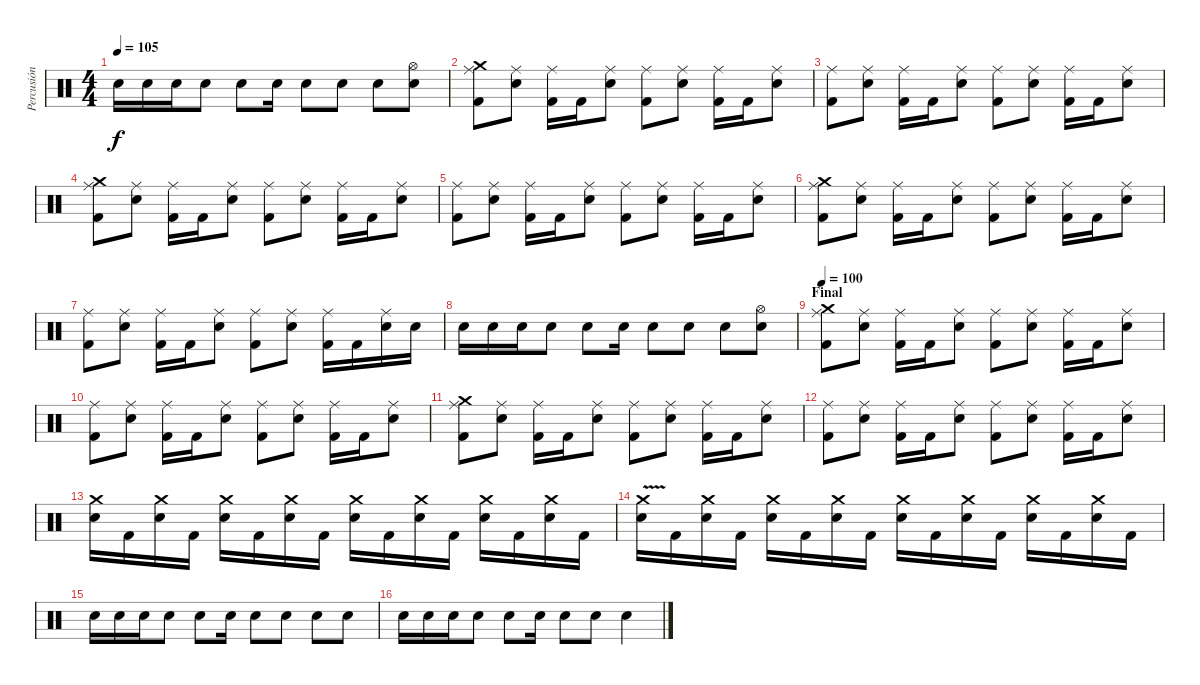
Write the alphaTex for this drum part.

\track ("Percusión" "Percusión") {instrument percussion}
\staff {score}
\articulation defaults
\ts (4 4)
\tempo 105
\clef neutral
\ks c "Snare (hit) 2".16{dy f} "Snare (hit) 2".16 "Snare (hit) 2".16 "Snare (hit) 2".8 "Snare (hit) 2".8 "Snare (hit) 2".16 "Snare (hit) 2".8 "Snare (hit) 2".8 "Snare (hit) 2".8
("Snare (hit) 2" "Hi-Hat (open)").8 |
("Kick (hit) 2" "Ride (middle)" "Crash medium (hit)").8 ("Snare (hit) 2" "Ride (middle)").8 ("Kick (hit) 2" "Ride (middle)").16 "Kick (hit) 2".16 ("Snare (hit) 2" "Ride (middle)").8 ("Kick (hit) 2" "Ride (middle)").8 ("Snare (hit) 2" "Ride (middle)").8 ("Kick (hit) 2" "Ride (middle)").16 "Kick (hit) 2".16 ("Snare (hit) 2" "Ride (middle)").8 |
("Kick (hit) 2" "Ride (middle)").8 ("Snare (hit) 2" "Ride (middle)").8 ("Kick (hit) 2" "Ride (middle)").16 "Kick (hit) 2".16 ("Snare (hit) 2" "Ride (middle)").8 ("Kick (hit) 2" "Ride (middle)").8 ("Snare (hit) 2" "Ride (middle)").8 ("Kick (hit) 2" "Ride (middle)").16 "Kick (hit) 2".16 ("Snare (hit) 2" "Ride (middle)").8 |
("Kick (hit) 2" "Ride (middle)" "Crash medium (hit)").8 ("Snare (hit) 2" "Ride (middle)").8 ("Kick (hit) 2" "Ride (middle)").16 "Kick (hit) 2".16 ("Snare (hit) 2" "Ride (middle)").8 ("Kick (hit) 2" "Ride (middle)").8 ("Snare (hit) 2" "Ride (middle)").8 ("Kick (hit) 2" "Ride (middle)").16 "Kick (hit) 2".16 ("Snare (hit) 2" "Ride (middle)").8 |
("Kick (hit) 2" "Ride (middle)").8 ("Snare (hit) 2" "Ride (middle)").8 ("Kick (hit) 2" "Ride (middle)").16 "Kick (hit) 2".16 ("Snare (hit) 2" "Ride (middle)").8 ("Kick (hit) 2" "Ride (middle)").8 ("Snare (hit) 2" "Ride (middle)").8 ("Kick (hit) 2" "Ride (middle)").16 "Kick (hit) 2".16 ("Snare (hit) 2" "Ride (middle)").8 |
("Kick (hit) 2" "Ride (middle)" "Crash medium (hit)").8 ("Snare (hit) 2" "Ride (middle)").8 ("Kick (hit) 2" "Ride (middle)").16 "Kick (hit) 2".16 ("Snare (hit) 2" "Ride (middle)").8 ("Kick (hit) 2" "Ride (middle)").8 ("Snare (hit) 2" "Ride (middle)").8 ("Kick (hit) 2" "Ride (middle)").16 "Kick (hit) 2".16 ("Snare (hit) 2" "Ride (middle)").8 |
("Kick (hit) 2" "Ride (middle)").8 ("Snare (hit) 2" "Ride (middle)").8 ("Kick (hit) 2" "Ride (middle)").16 "Kick (hit) 2".16 ("Snare (hit) 2" "Ride (middle)").8 ("Kick (hit) 2" "Ride (middle)").8 ("Snare (hit) 2" "Ride (middle)").8 ("Kick (hit) 2" "Ride (middle)").16 "Kick (hit) 2".16 ("Snare (hit) 2" "Ride (middle)").16 "Snare (hit) 2".16 |
"Snare (hit) 2".16 "Snare (hit) 2".16 "Snare (hit) 2".16 "Snare (hit) 2".8 "Snare (hit) 2".8 "Snare (hit) 2".16 "Snare (hit) 2".8 "Snare (hit) 2".8 "Snare (hit) 2".8 ("Snare (hit) 2" "Hi-Hat (open)").8 |
\section ("" "Final ")
\tempo 100
("Kick (hit) 2" "Ride (middle)" "Crash medium (hit)").8 ("Snare (hit) 2" "Ride (middle)").8 ("Kick (hit) 2" "Ride (middle)").16 "Kick (hit) 2".16 ("Snare (hit) 2" "Ride (middle)").8 ("Kick (hit) 2" "Ride (middle)").8 ("Snare (hit) 2" "Ride (middle)").8 ("Kick (hit) 2" "Ride (middle)").16 "Kick (hit) 2".16 ("Snare (hit) 2" "Ride (middle)").8 |
("Kick (hit) 2" "Ride (middle)").8 ("Snare (hit) 2" "Ride (middle)").8 ("Kick (hit) 2" "Ride (middle)").16 "Kick (hit) 2".16 ("Snare (hit) 2" "Ride (middle)").8 ("Kick (hit) 2" "Ride (middle)").8 ("Snare (hit) 2" "Ride (middle)").8 ("Kick (hit) 2" "Ride (middle)").16 "Kick (hit) 2".16 ("Snare (hit) 2" "Ride (middle)").8 |
("Kick (hit) 2" "Ride (middle)" "Crash medium (hit)").8 ("Snare (hit) 2" "Ride (middle)").8 ("Kick (hit) 2" "Ride (middle)").16 "Kick (hit) 2".16 ("Snare (hit) 2" "Ride (middle)").8 ("Kick (hit) 2" "Ride (middle)").8 ("Snare (hit) 2" "Ride (middle)").8 ("Kick (hit) 2" "Ride (middle)").16 "Kick (hit) 2".16 ("Snare (hit) 2" "Ride (middle)").8 |
("Kick (hit) 2" "Ride (middle)").8 ("Snare (hit) 2" "Ride (middle)").8 ("Kick (hit) 2" "Ride (middle)").16 "Kick (hit) 2".16 ("Snare (hit) 2" "Ride (middle)").8 ("Kick (hit) 2" "Ride (middle)").8 ("Snare (hit) 2" "Ride (middle)").8 ("Kick (hit) 2" "Ride (middle)").16 "Kick (hit) 2".16 ("Snare (hit) 2" "Ride (middle)").8 |
("Crash medium (hit)" "Snare (hit) 2").16 "Kick (hit) 2".16 ("Crash medium (hit)" "Snare (hit) 2").16 "Kick (hit) 2".16 ("Crash medium (hit)" "Snare (hit) 2").16 "Kick (hit) 2".16 ("Crash medium (hit)" "Snare (hit) 2").16 "Kick (hit) 2".16 ("Crash medium (hit)" "Snare (hit) 2").16 "Kick (hit) 2".16 ("Crash medium (hit)" "Snare (hit) 2").16 "Kick (hit) 2".16 ("Crash medium (hit)" "Snare (hit) 2").16 "Kick (hit) 2".16 ("Crash medium (hit)" "Snare (hit) 2").16 "Kick (hit) 2".16 |
("Crash medium (hit)" "Snare (hit) 2"{v}).16 "Kick (hit) 2".16 ("Crash medium (hit)" "Snare (hit) 2").16 "Kick (hit) 2".16 ("Crash medium (hit)" "Snare (hit) 2").16 "Kick (hit) 2".16 ("Crash medium (hit)" "Snare (hit) 2").16 "Kick (hit) 2".16 ("Crash medium (hit)" "Snare (hit) 2").16 "Kick (hit) 2".16 ("Crash medium (hit)" "Snare (hit) 2").16 "Kick (hit) 2".16 ("Crash medium (hit)" "Snare (hit) 2").16 "Kick (hit) 2".16 ("Crash medium (hit)" "Snare (hit) 2").16 "Kick (hit) 2".16 |
"Snare (hit) 2".16 "Snare (hit) 2".16 "Snare (hit) 2".16 "Snare (hit) 2".8 "Snare (hit) 2".8 "Snare (hit) 2".16 "Snare (hit) 2".8 "Snare (hit) 2".8 "Snare (hit) 2".8 "Snare (hit) 2".8 |
"Snare (hit) 2".16 "Snare (hit) 2".16 "Snare (hit) 2".16 "Snare (hit) 2".8 "Snare (hit) 2".8 "Snare (hit) 2".16 "Snare (hit) 2".8 "Snare (hit) 2".8 "Snare (hit) 2".4
